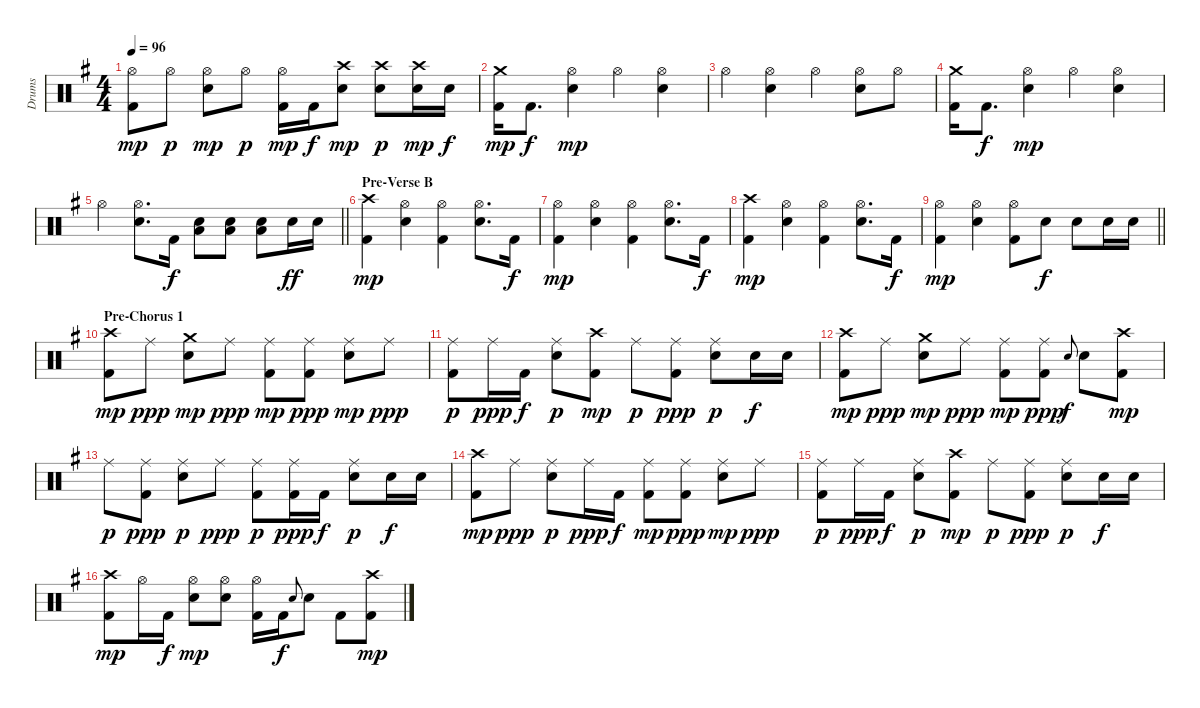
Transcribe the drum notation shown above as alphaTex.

\track ("Drums" "Drums") {instrument percussion}
\staff {score}
\articulation defaults
\ts (4 4)
\tempo 96
\clef neutral
\ks g
("Hi-Hat (open)" "Kick (hit) 2").8{dy mp} "Hi-Hat (open)".8{dy p} ("Hi-Hat (open)" "Electric Snare (hit)").8{dy mp} "Hi-Hat (open)".8{dy p} ("Hi-Hat (open)" "Kick (hit) 2").16{dy mp} "Kick (hit) 2".16{dy f} ("Crash high (hit)" "Electric Snare (hit)").8{dy mp} ("Electric Snare (hit)" "Crash high (hit)").8{dy p} ("Crash high (hit)" "Electric Snare (hit)").16{dy mp} "Electric Snare (hit)".16{dy f} |
("Kick (hit) 2" "Crash medium (hit)").16{dy mp} "Kick (hit) 2".8{d dy f} ("Hi-Hat (open)" "Electric Snare (hit)").4{dy mp} "Hi-Hat (open)".4 ("Hi-Hat (open)" "Electric Snare (hit)").4 |
"Hi-Hat (open)".4 ("Hi-Hat (open)" "Electric Snare (hit)").4 "Hi-Hat (open)".4 ("Hi-Hat (open)" "Electric Snare (hit)").8 "Hi-Hat (open)".8 |
("Kick (hit) 2" "Crash medium (hit)").16 "Kick (hit) 2".8{d dy f} ("Hi-Hat (open)" "Electric Snare (hit)").4{dy mp} "Hi-Hat (open)".4 ("Hi-Hat (open)" "Electric Snare (hit)").4 |
\barLineRight lightlight "Hi-Hat (open)".4
("Hi-Hat (open)" "Electric Snare (hit)").8{d} "Kick (hit) 2".16{dy f} ("Electric Snare (hit)" "Low Tom (hit)").8 ("Electric Snare (hit)" "Low Tom (hit)").8 ("Electric Snare (hit)" "Low Tom (hit)").8 "Electric Snare (hit)".16{dy ff} "Electric Snare (hit)".16 |
\section ("" "Pre-Verse B")
("Kick (hit) 2" "Crash high (hit)").4{dy mp} ("Electric Snare (hit)" "Hi-Hat (open)").4 ("Kick (hit) 2" "Hi-Hat (open)").4 ("Electric Snare (hit)" "Hi-Hat (open)").8{d} "Kick (hit) 2".16{dy f} |
("Kick (hit) 2" "Hi-Hat (open)").4{dy mp} ("Electric Snare (hit)" "Hi-Hat (open)").4 ("Kick (hit) 2" "Hi-Hat (open)").4 ("Electric Snare (hit)" "Hi-Hat (open)").8{d} "Kick (hit) 2".16{dy f} |
("Kick (hit) 2" "Crash high (hit)").4{dy mp} ("Electric Snare (hit)" "Hi-Hat (open)").4 ("Kick (hit) 2" "Hi-Hat (open)").4 ("Electric Snare (hit)" "Hi-Hat (open)").8{d} "Kick (hit) 2".16{dy f} |
\barLineRight lightlight
("Kick (hit) 2" "Hi-Hat (open)").4{dy mp} ("Electric Snare (hit)" "Hi-Hat (open)").4 ("Kick (hit) 2" "Hi-Hat (open)").8 "Electric Snare (hit)".8{dy f} "Electric Snare (hit)".8 "Electric Snare (hit)".16 "Electric Snare (hit)".16 |
\section ("" "Pre-Chorus 1")
("Kick (hit) 2" "Crash high (hit)").8{dy mp} "Ride (middle)".8{dy ppp} ("Electric Snare (hit)" "Crash medium (hit)").8{dy mp} "Ride (middle)".8{dy ppp} ("Ride (middle)" "Kick (hit) 2").8{dy mp} ("Ride (middle)" "Kick (hit) 2").8{dy ppp} ("Ride (middle)" "Electric Snare (hit)").8{dy mp} "Ride (middle)".8{dy ppp} |
("Ride (middle)" "Kick (hit) 2").8{dy p} "Ride (middle)".16{dy ppp} "Kick (hit) 2".16{dy f} ("Ride (middle)" "Electric Snare (hit)").8{dy p} ("Crash high (hit)" "Kick (hit) 2").8{dy mp} "Ride (middle)".8{dy p} ("Ride (middle)" "Kick (hit) 2").8{dy ppp} ("Ride (middle)" "Electric Snare (hit)").8{dy p} "Electric Snare (hit)".16{dy f} "Electric Snare (hit)".16 |
("Kick (hit) 2" "Crash high (hit)").8{dy mp} "Ride (middle)".8{dy ppp} ("Electric Snare (hit)" "Crash medium (hit)").8{dy mp} "Ride (middle)".8{dy ppp} ("Ride (middle)" "Kick (hit) 2").8{dy mp} ("Ride (middle)" "Kick (hit) 2").8{dy ppp} "Electric Snare (hit)".8{gr onbeat dy f} "Electric Snare (hit)".8 ("Crash high (hit)" "Kick (hit) 2").8{dy mp} |
"Ride (middle)".8{dy p} ("Ride (middle)" "Kick (hit) 2").8{dy ppp} ("Ride (middle)" "Electric Snare (hit)").8{dy p} "Ride (middle)".8{dy ppp} ("Ride (middle)" "Kick (hit) 2").8{dy p} ("Ride (middle)" "Kick (hit) 2").16{dy ppp} "Kick (hit) 2".16{dy f} ("Ride (middle)" "Electric Snare (hit)").8{dy p} "Electric Snare (hit)".16{dy f} "Electric Snare (hit)".16 |
("Kick (hit) 2" "Crash high (hit)").8{dy mp} "Ride (middle)".8{dy ppp} ("Electric Snare (hit)" "Ride (middle)").8{dy p} "Ride (middle)".16{dy ppp} "Kick (hit) 2".16{dy f} ("Ride (middle)" "Kick (hit) 2").8{dy mp} ("Ride (middle)" "Kick (hit) 2").8{dy ppp} ("Ride (middle)" "Electric Snare (hit)").8{dy mp} "Ride (middle)".8{dy ppp} |
("Ride (middle)" "Kick (hit) 2").8{dy p} "Ride (middle)".16{dy ppp} "Kick (hit) 2".16{dy f} ("Ride (middle)" "Electric Snare (hit)").8{dy p} ("Crash high (hit)" "Kick (hit) 2").8{dy mp} "Ride (middle)".8{dy p} ("Ride (middle)" "Kick (hit) 2").8{dy ppp} ("Ride (middle)" "Electric Snare (hit)").8{dy p} "Electric Snare (hit)".16{dy f} "Electric Snare (hit)".16 |
("Kick (hit) 2" "Crash high (hit)").8{dy mp} "Hi-Hat (open)".16 "Kick (hit) 2".16{dy f} ("Electric Snare (hit)" "Hi-Hat (open)").8{dy mp} ("Electric Snare (hit)" "Hi-Hat (open)").8 ("Kick (hit) 2" "Hi-Hat (open)").16 "Kick (hit) 2".16{dy f} "Electric Snare (hit)".8{gr onbeat} "Electric Snare (hit)".8 "Kick (hit) 2".8 ("Kick (hit) 2" "Crash high (hit)").8{dy mp}
